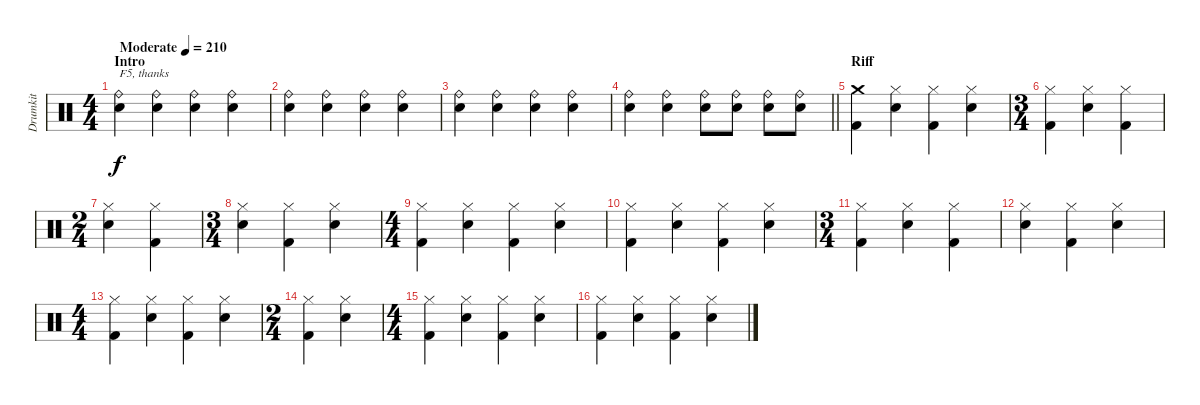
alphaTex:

\track ("Drumkit" "Drumkit") {instrument percussion}
\staff {score}
\articulation defaults
\ts (4 4)
\section ("" "Intro")
\tempo (210 "Moderate")
\clef neutral
\ks c
("Ride (bell)" "Electric Snare (hit)").4{txt "F5, thanks" dy f} ("Ride (bell)" "Electric Snare (hit)").4 ("Ride (bell)" "Electric Snare (hit)").4 ("Ride (bell)" "Electric Snare (hit)").4 |
("Ride (bell)" "Electric Snare (hit)").4 ("Ride (bell)" "Electric Snare (hit)").4 ("Ride (bell)" "Electric Snare (hit)").4 ("Ride (bell)" "Electric Snare (hit)").4 |
("Ride (bell)" "Electric Snare (hit)").4 ("Ride (bell)" "Electric Snare (hit)").4 ("Ride (bell)" "Electric Snare (hit)").4 ("Ride (bell)" "Electric Snare (hit)").4 |
\barLineRight lightlight
("Ride (bell)" "Electric Snare (hit)").4 ("Ride (bell)" "Electric Snare (hit)").4 ("Ride (bell)" "Electric Snare (hit)").8 ("Ride (bell)" "Electric Snare (hit)").8 ("Ride (bell)" "Electric Snare (hit)").8 ("Ride (bell)" "Electric Snare (hit)").8 |
\section ("" "Riff")
("Crash medium (hit)" "Kick (hit) 2").4 ("Hi-Hat (closed)" "Electric Snare (hit)").4 ("Hi-Hat (closed)" "Kick (hit) 2").4 ("Hi-Hat (closed)" "Electric Snare (hit)").4 |
\ts (3 4)
("Hi-Hat (closed)" "Kick (hit) 2").4 ("Hi-Hat (closed)" "Electric Snare (hit)").4 ("Hi-Hat (closed)" "Kick (hit) 2").4 |
\ts (2 4)
("Hi-Hat (closed)" "Electric Snare (hit)").4 ("Hi-Hat (closed)" "Kick (hit) 2").4 |
\ts (3 4)
("Hi-Hat (closed)" "Electric Snare (hit)").4 ("Hi-Hat (closed)" "Kick (hit) 2").4 ("Hi-Hat (closed)" "Electric Snare (hit)").4 |
\ts (4 4)
("Hi-Hat (closed)" "Kick (hit) 2").4 ("Hi-Hat (closed)" "Electric Snare (hit)").4 ("Hi-Hat (closed)" "Kick (hit) 2").4 ("Hi-Hat (closed)" "Electric Snare (hit)").4 |
("Hi-Hat (closed)" "Kick (hit) 2").4 ("Hi-Hat (closed)" "Electric Snare (hit)").4 ("Hi-Hat (closed)" "Kick (hit) 2").4 ("Hi-Hat (closed)" "Electric Snare (hit)").4 |
\ts (3 4)
("Hi-Hat (closed)" "Kick (hit) 2").4 ("Hi-Hat (closed)" "Electric Snare (hit)").4 ("Hi-Hat (closed)" "Kick (hit) 2").4 |
("Hi-Hat (closed)" "Electric Snare (hit)").4 ("Hi-Hat (closed)" "Kick (hit) 2").4 ("Hi-Hat (closed)" "Electric Snare (hit)").4 |
\ts (4 4)
("Hi-Hat (closed)" "Kick (hit) 2").4 ("Hi-Hat (closed)" "Electric Snare (hit)").4 ("Hi-Hat (closed)" "Kick (hit) 2").4 ("Hi-Hat (closed)" "Electric Snare (hit)").4 |
\ts (2 4)
("Hi-Hat (closed)" "Kick (hit) 2").4 ("Hi-Hat (closed)" "Electric Snare (hit)").4 |
\ts (4 4)
("Hi-Hat (closed)" "Kick (hit) 2").4 ("Hi-Hat (closed)" "Electric Snare (hit)").4 ("Hi-Hat (closed)" "Kick (hit) 2").4 ("Hi-Hat (closed)" "Electric Snare (hit)").4 |
("Hi-Hat (closed)" "Kick (hit) 2").4 ("Hi-Hat (closed)" "Electric Snare (hit)").4 ("Hi-Hat (closed)" "Kick (hit) 2").4 ("Hi-Hat (closed)" "Electric Snare (hit)").4
